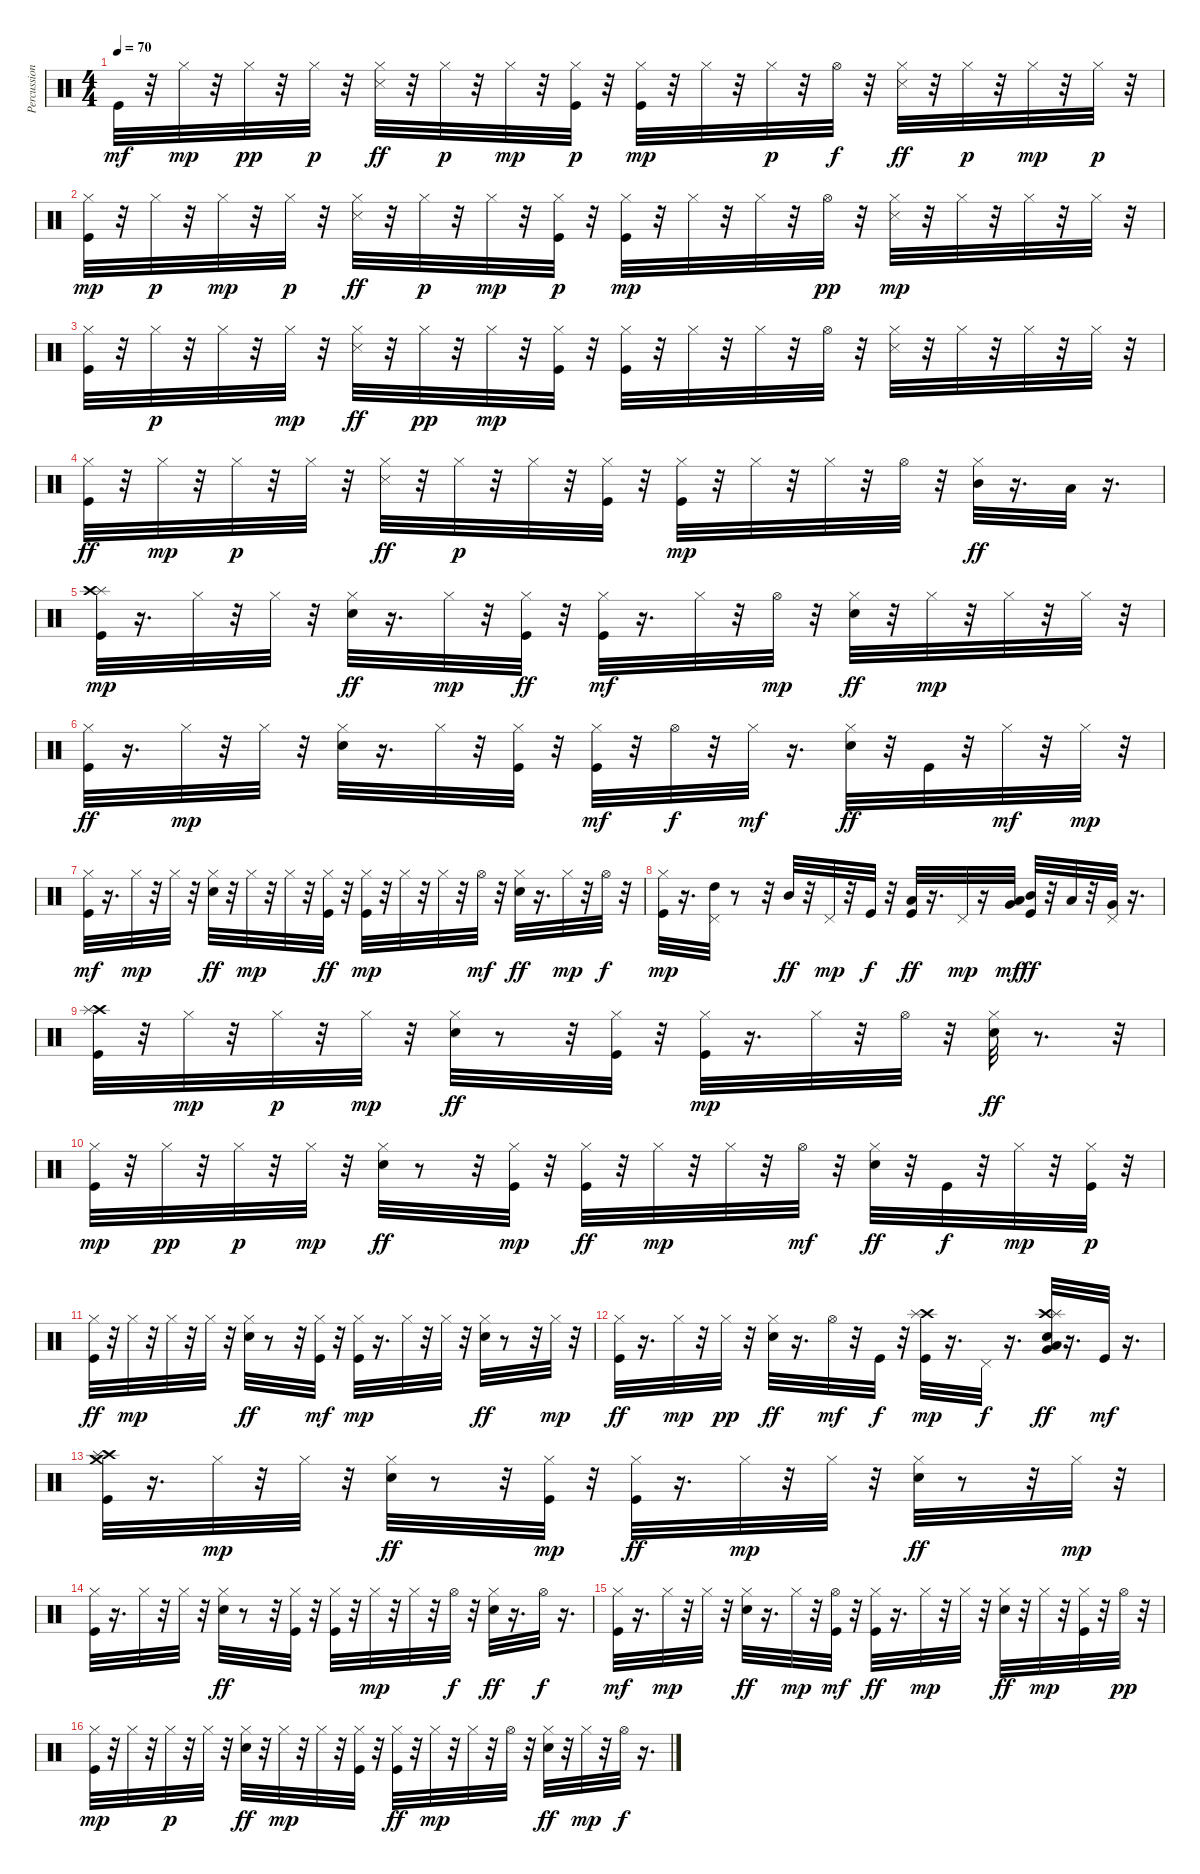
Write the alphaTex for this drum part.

\track ("Percussion" "Percussion") {instrument percussion}
\staff {score}
\articulation defaults
\ts (4 4)
\tempo 70
\clef neutral
\ks c "Kick (hit)".32{dy mf}
r.32 "Hi-Hat (closed)".32{dy mp} r.32 "Hi-Hat (closed)".32{dy pp} r.32 "Hi-Hat (closed)".32{dy p} r.32 ("Hi-Hat (closed)" "Snare (side stick) 3").32{dy ff} r.32 "Hi-Hat (closed)".32{dy p} r.32 "Hi-Hat (closed)".32{dy mp} r.32 ("Kick (hit)" "Hi-Hat (closed)").32{dy p} r.32 ("Hi-Hat (closed)" "Kick (hit)").32{dy mp} r.32 "Hi-Hat (closed)".32 r.32 "Hi-Hat (closed)".32{dy p} r.32 "Hi-Hat (open)".32{dy f} r.32 ("Hi-Hat (closed)" "Snare (side stick) 3").32{dy ff} r.32 "Hi-Hat (closed)".32{dy p} r.32 "Hi-Hat (closed)".32{dy mp} r.32 "Hi-Hat (closed)".32{dy p} r.32 |
("Hi-Hat (closed)" "Kick (hit)").32{dy mp} r.32 "Hi-Hat (closed)".32{dy p} r.32 "Hi-Hat (closed)".32{dy mp} r.32 "Hi-Hat (closed)".32{dy p} r.32 ("Hi-Hat (closed)" "Snare (side stick) 3").32{dy ff} r.32 "Hi-Hat (closed)".32{dy p} r.32 "Hi-Hat (closed)".32{dy mp} r.32 ("Hi-Hat (closed)" "Kick (hit)").32{dy p} r.32 ("Hi-Hat (closed)" "Kick (hit)").32{dy mp} r.32 "Hi-Hat (closed)".32 r.32 "Hi-Hat (closed)".32 r.32 "Hi-Hat (open)".32{dy pp} r.32 ("Snare (side stick) 3" "Hi-Hat (closed)").32{dy mp} r.32 "Hi-Hat (closed)".32 r.32 "Hi-Hat (closed)".32 r.32 "Hi-Hat (closed)".32 r.32 |
("Kick (hit)" "Hi-Hat (closed)").32 r.32 "Hi-Hat (closed)".32{dy p} r.32 "Hi-Hat (closed)".32 r.32 "Hi-Hat (closed)".32{dy mp} r.32 ("Hi-Hat (closed)" "Snare (side stick) 3").32{dy ff} r.32 "Hi-Hat (closed)".32{dy pp} r.32 "Hi-Hat (closed)".32{dy mp} r.32 ("Kick (hit)" "Hi-Hat (closed)").32 r.32 ("Kick (hit)" "Hi-Hat (closed)").32 r.32 "Hi-Hat (closed)".32 r.32 "Hi-Hat (closed)".32 r.32 "Hi-Hat (open)".32 r.32 ("Snare (side stick) 3" "Hi-Hat (closed)").32 r.32 "Hi-Hat (closed)".32 r.32 "Hi-Hat (closed)".32 r.32 "Hi-Hat (closed)".32 r.32 |
("Hi-Hat (closed)" "Kick (hit)").32{dy ff} r.32 "Hi-Hat (closed)".32{dy mp} r.32 "Hi-Hat (closed)".32{dy p} r.32 "Hi-Hat (closed)".32 r.32 ("Hi-Hat (closed)" "Snare (side stick) 3").32{dy ff} r.32 "Hi-Hat (closed)".32{dy p} r.32 "Hi-Hat (closed)".32 r.32 ("Hi-Hat (closed)" "Kick (hit)").32 r.32 ("Hi-Hat (closed)" "Kick (hit)").32{dy mp} r.32 "Hi-Hat (closed)".32 r.32 "Hi-Hat (closed)".32 r.32 "Hi-Hat (open)".32 r.32 ("Hi-Hat (closed)" "Mid Tom (hit)").32{dy ff} r.16{d} "Low Tom (hit)".32 r.16{d} |
("Kick (hit)" "Splash (hit)" "Crash high (hit)").32{dy mp} r.16{d} "Hi-Hat (closed)".32 r.32 "Hi-Hat (closed)".32 r.32 ("Hi-Hat (closed)" "Snare (hit) 2").32{dy ff} r.16{d} "Hi-Hat (closed)".32{dy mp} r.32 ("Hi-Hat (closed)" "Kick (hit)").32{dy ff} r.32 ("Hi-Hat (closed)" "Kick (hit)").32{dy mf} r.16{d} "Hi-Hat (closed)".32 r.32 "Hi-Hat (open)".32{dy mp} r.32 ("Hi-Hat (closed)" "Snare (hit) 2").32{dy ff} r.32 "Hi-Hat (closed)".32{dy mp} r.32 "Hi-Hat (closed)".32 r.32 "Hi-Hat (closed)".32 r.32 |
("Hi-Hat (closed)" "Kick (hit)").32{dy ff} r.16{d} "Hi-Hat (closed)".32{dy mp} r.32 "Hi-Hat (closed)".32 r.32 ("Snare (hit) 2" "Hi-Hat (closed)").32 r.16{d} "Hi-Hat (closed)".32 r.32 ("Hi-Hat (closed)" "Kick (hit)").32 r.32 ("Hi-Hat (closed)" "Kick (hit)").32{dy mf} r.32 "Hi-Hat (open)".32{dy f} r.32 "Hi-Hat (closed)".32{dy mf} r.16{d} ("Hi-Hat (closed)" "Snare (hit) 2").32{dy ff} r.32 "Kick (hit)".32 r.32 "Hi-Hat (closed)".32{dy mf} r.32 "Hi-Hat (closed)".32{dy mp} r.32 |
("Hi-Hat (closed)" "Kick (hit)").32{dy mf} r.16{d} "Hi-Hat (closed)".32{dy mp} r.32 "Hi-Hat (closed)".32 r.32 ("Hi-Hat (closed)" "Snare (hit) 2").32{dy ff} r.32 "Hi-Hat (closed)".32{dy mp} r.32 "Hi-Hat (closed)".32 r.32 ("Hi-Hat (closed)" "Kick (hit)").32{dy ff} r.32 ("Hi-Hat (closed)" "Kick (hit)").32{dy mp} r.32 "Hi-Hat (closed)".32 r.32 "Hi-Hat (closed)".32 r.32 "Hi-Hat (open)".32{dy mf} r.32 ("Hi-Hat (closed)" "Snare (hit) 2").32{dy ff} r.16{d} "Hi-Hat (closed)".32{dy mp} r.32 "Hi-Hat (open)".32{dy f} r.32 |
("Kick (hit)" "Hi-Hat (closed)").32{dy mp} r.16{d} ("High Tom (hit)" "Pedal Hi-Hat (hit)").32 r.8 r.32 "Mid Tom (hit)".32{dy ff} r.32 "Pedal Hi-Hat (hit)".32{dy mp} r.32 "Kick (hit)".32{dy f} r.32 ("Low Tom (hit)" "Kick (hit)").32{dy ff} r.16{d} "Pedal Hi-Hat (hit)".32{dy mp} r.16 ("Very Low Tom (hit)" "Low Tom (hit)").32{dy mf} ("Kick (hit)" "Mid Tom (hit)").32{dy ff} r.32 "Low Tom (hit)".32 r.32 ("Pedal Hi-Hat (hit)" "Very Low Tom (hit)").32 r.16{d} |
("Crash high (hit)" "Splash (hit)" "Kick (hit)").32 r.32 "Hi-Hat (closed)".32{dy mp} r.32 "Hi-Hat (closed)".32{dy p} r.32 "Hi-Hat (closed)".32{dy mp} r.32 ("Hi-Hat (closed)" "Snare (hit) 2").32{dy ff} r.8 r.32 ("Hi-Hat (closed)" "Kick (hit)").32 r.32 ("Hi-Hat (closed)" "Kick (hit)").32{dy mp} r.16{d} "Hi-Hat (closed)".32 r.32 "Hi-Hat (open)".32 r.32 ("Hi-Hat (closed)" "Snare (hit) 2").32{dy ff} r.8{d} r.32 |
("Hi-Hat (closed)" "Kick (hit)").32{dy mp} r.32 "Hi-Hat (closed)".32{dy pp} r.32 "Hi-Hat (closed)".32{dy p} r.32 "Hi-Hat (closed)".32{dy mp} r.32 ("Hi-Hat (closed)" "Snare (hit) 2").32{dy ff} r.8 r.32 ("Hi-Hat (closed)" "Kick (hit)").32{dy mp} r.32 ("Hi-Hat (closed)" "Kick (hit)").32{dy ff} r.32 "Hi-Hat (closed)".32{dy mp} r.32 "Hi-Hat (closed)".32 r.32 "Hi-Hat (open)".32{dy mf} r.32 ("Hi-Hat (closed)" "Snare (hit) 2").32{dy ff} r.32 "Kick (hit)".32{dy f} r.32 "Hi-Hat (closed)".32{dy mp} r.32 ("Hi-Hat (closed)" "Kick (hit)").32{dy p} r.32 |
("Hi-Hat (closed)" "Kick (hit)").32{dy ff} r.32 "Hi-Hat (closed)".32{dy mp} r.32 "Hi-Hat (closed)".32 r.32 "Hi-Hat (closed)".32 r.32 ("Hi-Hat (closed)" "Snare (hit) 2").32{dy ff} r.8 r.32 ("Hi-Hat (closed)" "Kick (hit)").32{dy mf} r.32 ("Hi-Hat (closed)" "Kick (hit)").32{dy mp} r.16{d} "Hi-Hat (closed)".32 r.32 "Hi-Hat (closed)".32 r.32 ("Hi-Hat (closed)" "Snare (hit) 2").32{dy ff} r.8 r.32 "Hi-Hat (closed)".32{dy mp} r.32 |
("Hi-Hat (closed)" "Kick (hit)").32{dy ff} r.16{d} "Hi-Hat (closed)".32{dy mp} r.32 "Hi-Hat (closed)".32{dy pp} r.32 ("Hi-Hat (closed)" "Snare (hit) 2").32{dy ff} r.16{d} "Hi-Hat (open)".32{dy mf} r.32 "Kick (hit)".32{dy f} r.32 ("Crash high (hit)" "Kick (hit)" "Splash (hit)").32{dy mp} r.16{d} "Pedal Hi-Hat (hit)".32{dy f} r.16{d} ("Crash high (hit)" "Splash (hit)" "Very Low Tom (hit)" "Low Tom (hit)" "Snare (hit) 2").32{dy ff} r.16{d} "Kick (hit)".32{dy mf} r.16{d} |
("Kick (hit)" "Crash high (hit)" "Crash medium (hit)" "Splash (hit)").32 r.16{d} "Hi-Hat (closed)".32{dy mp} r.32 "Hi-Hat (closed)".32 r.32 ("Hi-Hat (closed)" "Snare (hit) 2").32{dy ff} r.8 r.32 ("Hi-Hat (closed)" "Kick (hit)").32{dy mp} r.32 ("Hi-Hat (closed)" "Kick (hit)").32{dy ff} r.16{d} "Hi-Hat (closed)".32{dy mp} r.32 "Hi-Hat (closed)".32 r.32 ("Hi-Hat (closed)" "Snare (hit) 2").32{dy ff} r.8 r.32 "Hi-Hat (closed)".32{dy mp} r.32 |
("Hi-Hat (closed)" "Kick (hit)").32 r.16{d} "Hi-Hat (closed)".32 r.32 "Hi-Hat (closed)".32 r.32 ("Hi-Hat (closed)" "Snare (hit) 2").32{dy ff} r.8 r.32 ("Hi-Hat (closed)" "Kick (hit)").32 r.32 ("Hi-Hat (closed)" "Kick (hit)").32 r.32 "Hi-Hat (closed)".32{dy mp} r.32 "Hi-Hat (closed)".32 r.32 "Hi-Hat (open)".32{dy f} r.32 ("Hi-Hat (closed)" "Snare (hit) 2").32{dy ff} r.16{d} "Hi-Hat (open)".32{dy f} r.16{d} |
("Kick (hit)" "Hi-Hat (closed)").32{dy mf} r.16{d} "Hi-Hat (closed)".32{dy mp} r.32 "Hi-Hat (closed)".32 r.32 ("Hi-Hat (closed)" "Snare (hit) 2").32{dy ff} r.16{d} "Hi-Hat (closed)".32{dy mp} r.32 ("Hi-Hat (open)" "Kick (hit)").32{dy mf} r.32 ("Hi-Hat (closed)" "Kick (hit)").32{dy ff} r.16{d} "Hi-Hat (closed)".32{dy mp} r.32 "Hi-Hat (closed)".32 r.32 ("Hi-Hat (closed)" "Snare (hit) 2").32{dy ff} r.32 "Hi-Hat (closed)".32{dy mp} r.32 ("Hi-Hat (closed)" "Kick (hit)").32 r.32 "Hi-Hat (open)".32{dy pp} r.32 |
("Kick (hit)" "Hi-Hat (closed)").32{dy mp} r.32 "Hi-Hat (closed)".32 r.32 "Hi-Hat (closed)".32{dy p} r.32 "Hi-Hat (closed)".32 r.32 ("Hi-Hat (closed)" "Snare (hit) 2").32{dy ff} r.32 "Hi-Hat (closed)".32{dy mp} r.32 "Hi-Hat (closed)".32 r.32 ("Kick (hit)" "Hi-Hat (closed)").32 r.32 ("Hi-Hat (closed)" "Kick (hit)").32{dy ff} r.32 "Hi-Hat (closed)".32{dy mp} r.32 "Hi-Hat (closed)".32 r.32 "Hi-Hat (open)".32 r.32 ("Hi-Hat (closed)" "Snare (hit) 2").32{dy ff} r.32 "Hi-Hat (closed)".32{dy mp} r.32 "Hi-Hat (open)".32{dy f} r.16{d}
